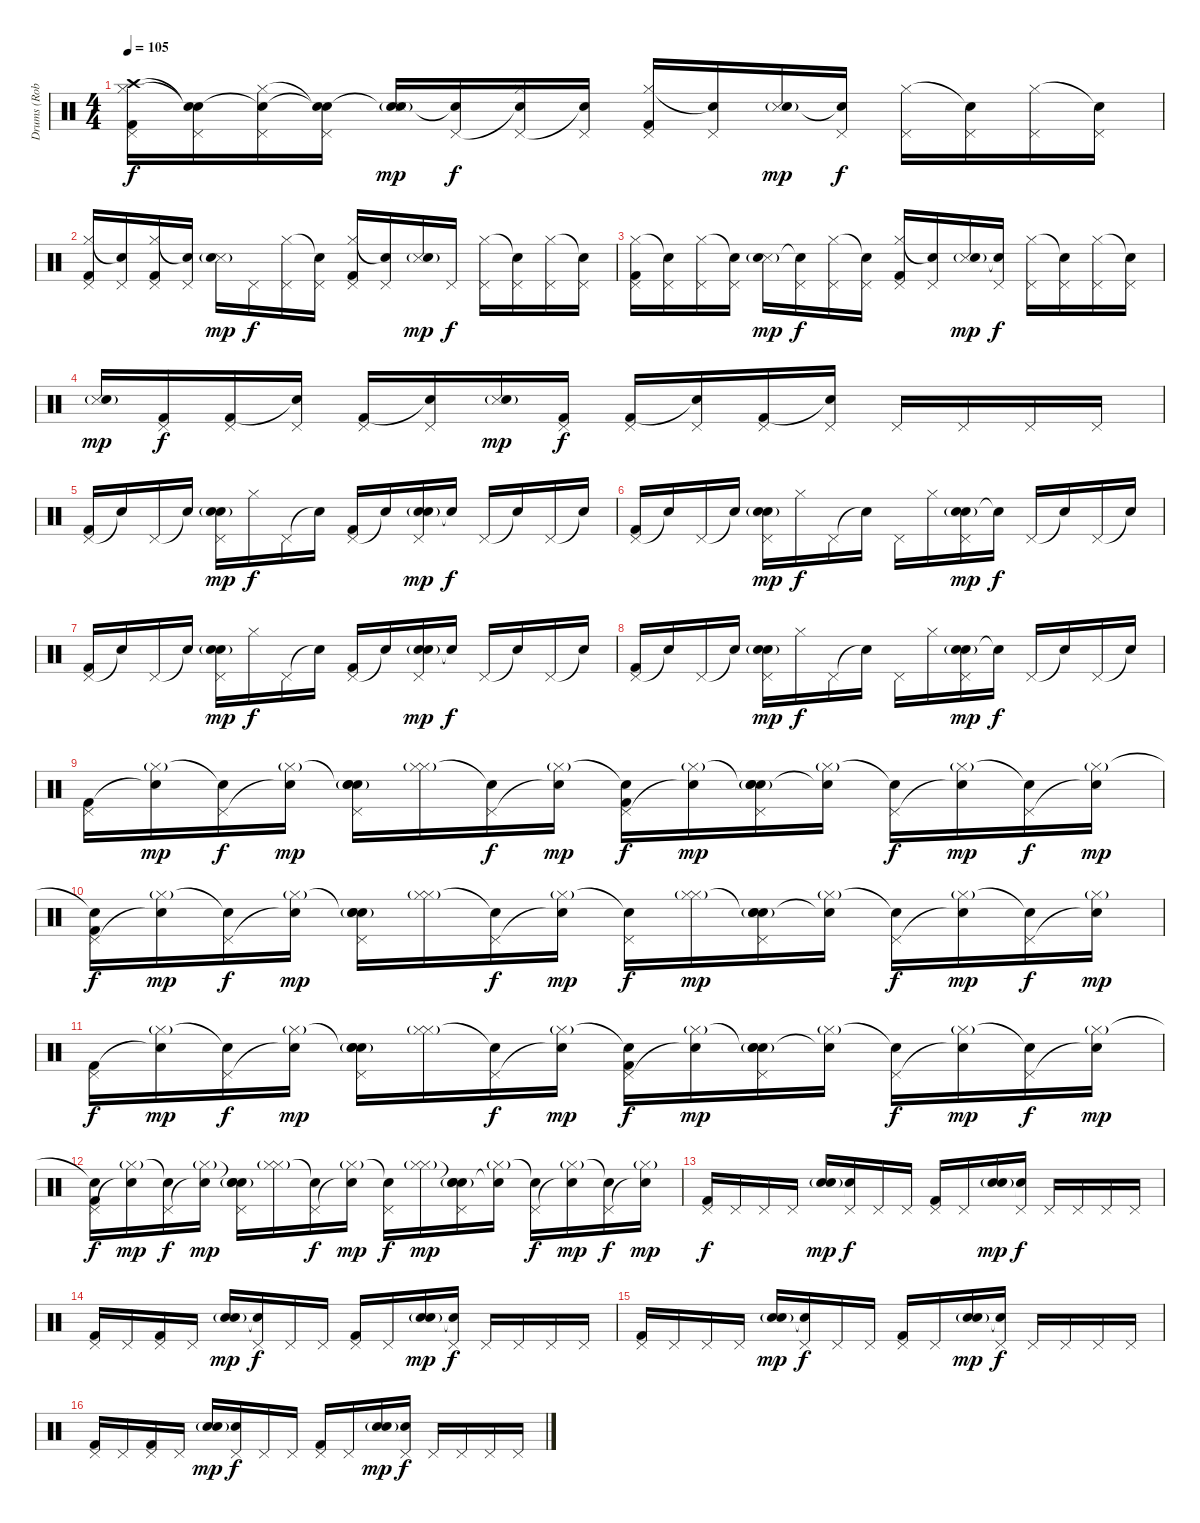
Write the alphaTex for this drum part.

\track ("Drums (Rob Bourdon)" "Drums (Rob") {instrument percussion}
\staff {score}
\articulation defaults
\ts (4 4)
\tempo 105
\clef neutral
\ks c
("Crash high (hit)" "Pedal Hi-Hat (hit)" "Hi-Hat (closed)" "Kick (hit) 2").16{dy f} ("Snare (hit)"{t} "Pedal Hi-Hat (hit)" "Snare (hit)"{t}).16 ("Snare (hit)"{t} "Pedal Hi-Hat (hit)" "Hi-Hat (closed)").16 ("Snare (hit)"{t} "Pedal Hi-Hat (hit)" "Snare (hit)"{t}).16 ("Snare (hit)"{t} "Snare (side stick) 3" "Electric Snare (hit)"{g}).16{dy mp} ("Pedal Hi-Hat (hit)" "Snare (hit)"{t}).16{dy f} ("Snare (hit)"{t} "Pedal Hi-Hat (hit)" "Hi-Hat (closed)").16 ("Pedal Hi-Hat (hit)" "Snare (hit)"{t}).16 ("Pedal Hi-Hat (hit)" "Hi-Hat (closed)" "Kick (hit) 2").16 ("Pedal Hi-Hat (hit)" "Snare (hit)"{t}).16 ("Snare (side stick) 3" "Electric Snare (hit)"{g}).16{dy mp} ("Pedal Hi-Hat (hit)" "Snare (hit)"{t}).16{dy f} ("Pedal Hi-Hat (hit)" "Hi-Hat (closed)").16 ("Pedal Hi-Hat (hit)" "Snare (hit)"{t}).16 ("Pedal Hi-Hat (hit)" "Hi-Hat (closed)").16 ("Pedal Hi-Hat (hit)" "Snare (hit)"{t}).16 |
("Pedal Hi-Hat (hit)" "Hi-Hat (closed)" "Kick (hit) 2").16 ("Pedal Hi-Hat (hit)" "Snare (hit)"{t}).16 ("Pedal Hi-Hat (hit)" "Hi-Hat (closed)" "Kick (hit) 2").16 ("Pedal Hi-Hat (hit)" "Snare (hit)"{t}).16 ("Snare (side stick) 3" "Electric Snare (hit)"{g}).16{dy mp} "Pedal Hi-Hat (hit)".16{dy f} ("Pedal Hi-Hat (hit)" "Hi-Hat (closed)").16 ("Pedal Hi-Hat (hit)" "Snare (hit)"{t}).16 ("Pedal Hi-Hat (hit)" "Hi-Hat (closed)" "Kick (hit) 2").16 ("Pedal Hi-Hat (hit)" "Snare (hit)"{t}).16 ("Snare (side stick) 3" "Electric Snare (hit)"{g}).16{dy mp} "Pedal Hi-Hat (hit)".16{dy f} ("Pedal Hi-Hat (hit)" "Hi-Hat (closed)").16 ("Pedal Hi-Hat (hit)" "Snare (hit)"{t}).16 ("Pedal Hi-Hat (hit)" "Hi-Hat (closed)").16 ("Pedal Hi-Hat (hit)" "Snare (hit)"{t}).16 |
("Pedal Hi-Hat (hit)" "Hi-Hat (closed)" "Kick (hit) 2").16 ("Pedal Hi-Hat (hit)" "Snare (hit)"{t}).16 ("Pedal Hi-Hat (hit)" "Hi-Hat (closed)").16 ("Pedal Hi-Hat (hit)" "Snare (hit)"{t}).16 ("Snare (side stick) 3" "Electric Snare (hit)"{g}).16{dy mp} ("Pedal Hi-Hat (hit)" "Snare (hit)"{t}).16{dy f} ("Pedal Hi-Hat (hit)" "Hi-Hat (closed)").16 ("Pedal Hi-Hat (hit)" "Snare (hit)"{t}).16 ("Pedal Hi-Hat (hit)" "Hi-Hat (closed)" "Kick (hit) 2").16 ("Pedal Hi-Hat (hit)" "Snare (hit)"{t}).16 ("Snare (side stick) 3" "Electric Snare (hit)"{g}).16{dy mp} ("Pedal Hi-Hat (hit)" "Snare (hit)"{t}).16{dy f} ("Pedal Hi-Hat (hit)" "Hi-Hat (closed)").16 ("Pedal Hi-Hat (hit)" "Snare (hit)"{t}).16 ("Pedal Hi-Hat (hit)" "Hi-Hat (closed)").16 ("Pedal Hi-Hat (hit)" "Snare (hit)"{t}).16 |
("Snare (side stick) 3" "Electric Snare (hit)"{g}).16{dy mp} ("Pedal Hi-Hat (hit)" "Kick (hit) 2").16{dy f} ("Pedal Hi-Hat (hit)" "Kick (hit) 2").16 ("Pedal Hi-Hat (hit)" "Snare (hit)"{t}).16 ("Pedal Hi-Hat (hit)" "Kick (hit) 2").16 ("Pedal Hi-Hat (hit)" "Snare (hit)"{t}).16 ("Snare (side stick) 3" "Electric Snare (hit)"{g}).16{dy mp} ("Pedal Hi-Hat (hit)" "Kick (hit) 2").16{dy f} ("Pedal Hi-Hat (hit)" "Kick (hit) 2").16 ("Pedal Hi-Hat (hit)" "Snare (hit)"{t}).16 ("Pedal Hi-Hat (hit)" "Kick (hit) 2").16 ("Pedal Hi-Hat (hit)" "Snare (hit)"{t}).16 "Pedal Hi-Hat (hit)".16 "Pedal Hi-Hat (hit)".16 "Pedal Hi-Hat (hit)".16 "Pedal Hi-Hat (hit)".16 |
("Pedal Hi-Hat (hit)" "Kick (hit) 2").16 "Snare (hit)"{t}.16 "Pedal Hi-Hat (hit)".16 "Snare (hit)"{t}.16 ("Electric Snare (hit)"{g} "Pedal Hi-Hat (hit)" "Hand Clap (hit)"{g}).16{dy mp} "Hi-Hat (closed)".16{dy f} "Pedal Hi-Hat (hit)".16 "Snare (hit)"{t}.16 ("Pedal Hi-Hat (hit)" "Kick (hit) 2").16 "Snare (hit)"{t}.16 ("Electric Snare (hit)"{g} "Pedal Hi-Hat (hit)" "Hand Clap (hit)"{g}).16{dy mp} "Snare (hit)"{t}.16{dy f} "Pedal Hi-Hat (hit)".16 "Snare (hit)"{t}.16 "Pedal Hi-Hat (hit)".16 "Snare (hit)"{t}.16 |
("Pedal Hi-Hat (hit)" "Kick (hit) 2").16 "Snare (hit)"{t}.16 "Pedal Hi-Hat (hit)".16 "Snare (hit)"{t}.16 ("Electric Snare (hit)"{g} "Pedal Hi-Hat (hit)" "Hand Clap (hit)"{g}).16{dy mp} "Hi-Hat (closed)".16{dy f} "Pedal Hi-Hat (hit)".16 "Snare (hit)"{t}.16 "Pedal Hi-Hat (hit)".16 "Hi-Hat (closed)".16 ("Electric Snare (hit)"{g} "Pedal Hi-Hat (hit)" "Hand Clap (hit)"{g}).16{dy mp} "Snare (hit)"{t}.16{dy f} "Pedal Hi-Hat (hit)".16 "Snare (hit)"{t}.16 "Pedal Hi-Hat (hit)".16 "Snare (hit)"{t}.16 |
("Pedal Hi-Hat (hit)" "Kick (hit) 2").16 "Snare (hit)"{t}.16 "Pedal Hi-Hat (hit)".16 "Snare (hit)"{t}.16 ("Electric Snare (hit)"{g} "Pedal Hi-Hat (hit)" "Hand Clap (hit)"{g}).16{dy mp} "Hi-Hat (closed)".16{dy f} "Pedal Hi-Hat (hit)".16 "Snare (hit)"{t}.16 ("Pedal Hi-Hat (hit)" "Kick (hit) 2").16 "Snare (hit)"{t}.16 ("Electric Snare (hit)"{g} "Pedal Hi-Hat (hit)" "Hand Clap (hit)"{g}).16{dy mp} "Snare (hit)"{t}.16{dy f} "Pedal Hi-Hat (hit)".16 "Snare (hit)"{t}.16 "Pedal Hi-Hat (hit)".16 "Snare (hit)"{t}.16 |
("Pedal Hi-Hat (hit)" "Kick (hit) 2").16 "Snare (hit)"{t}.16 "Pedal Hi-Hat (hit)".16 "Snare (hit)"{t}.16 ("Electric Snare (hit)"{g} "Pedal Hi-Hat (hit)" "Hand Clap (hit)"{g}).16{dy mp} "Hi-Hat (closed)".16{dy f} "Pedal Hi-Hat (hit)".16 "Snare (hit)"{t}.16 "Pedal Hi-Hat (hit)".16 "Hi-Hat (closed)".16 ("Electric Snare (hit)"{g} "Pedal Hi-Hat (hit)" "Hand Clap (hit)"{g}).16{dy mp} "Snare (hit)"{t}.16{dy f} "Pedal Hi-Hat (hit)".16 "Snare (hit)"{t}.16 "Pedal Hi-Hat (hit)".16 "Snare (hit)"{t}.16 |
("Pedal Hi-Hat (hit)" "Kick (hit) 2").16 ("Hi-Hat (closed)"{g} "Snare (hit)"{t}).16{dy mp} ("Snare (hit)"{t} "Pedal Hi-Hat (hit)").16{dy f} ("Hi-Hat (closed)"{g} "Snare (hit)"{t}).16{dy mp} ("Snare (hit)"{t} "Electric Snare (hit)"{g} "Pedal Hi-Hat (hit)" "Hand Clap (hit)"{g}).16 ("Hi-Hat (closed)"{g} "Hi-Hat (closed)").16 ("Snare (hit)"{t} "Pedal Hi-Hat (hit)").16{dy f} ("Hi-Hat (closed)"{g} "Snare (hit)"{t}).16{dy mp} ("Snare (hit)"{t} "Pedal Hi-Hat (hit)" "Kick (hit) 2").16{dy f} ("Hi-Hat (closed)"{g} "Snare (hit)"{t}).16{dy mp} ("Snare (hit)"{t} "Electric Snare (hit)"{g} "Pedal Hi-Hat (hit)" "Hand Clap (hit)"{g}).16 ("Hi-Hat (closed)"{g} "Snare (hit)"{t}).16 ("Snare (hit)"{t} "Pedal Hi-Hat (hit)").16{dy f} ("Hi-Hat (closed)"{g} "Snare (hit)"{t}).16{dy mp} ("Snare (hit)"{t} "Pedal Hi-Hat (hit)").16{dy f} ("Hi-Hat (closed)"{g} "Snare (hit)"{t}).16{dy mp} |
("Snare (hit)"{t} "Pedal Hi-Hat (hit)" "Kick (hit) 2").16{dy f} ("Hi-Hat (closed)"{g} "Snare (hit)"{t}).16{dy mp} ("Snare (hit)"{t} "Pedal Hi-Hat (hit)").16{dy f} ("Hi-Hat (closed)"{g} "Snare (hit)"{t}).16{dy mp} ("Snare (hit)"{t} "Electric Snare (hit)"{g} "Pedal Hi-Hat (hit)" "Hand Clap (hit)"{g}).16 ("Hi-Hat (closed)"{g} "Hi-Hat (closed)").16 ("Snare (hit)"{t} "Pedal Hi-Hat (hit)").16{dy f} ("Hi-Hat (closed)"{g} "Snare (hit)"{t}).16{dy mp} ("Snare (hit)"{t} "Pedal Hi-Hat (hit)").16{dy f} ("Hi-Hat (closed)"{g} "Hi-Hat (closed)").16{dy mp} ("Snare (hit)"{t} "Electric Snare (hit)"{g} "Pedal Hi-Hat (hit)" "Hand Clap (hit)"{g}).16 ("Hi-Hat (closed)"{g} "Snare (hit)"{t}).16 ("Snare (hit)"{t} "Pedal Hi-Hat (hit)").16{dy f} ("Hi-Hat (closed)"{g} "Snare (hit)"{t}).16{dy mp} ("Snare (hit)"{t} "Pedal Hi-Hat (hit)").16{dy f} ("Hi-Hat (closed)"{g} "Snare (hit)"{t}).16{dy mp} |
("Pedal Hi-Hat (hit)" "Kick (hit) 2").16{dy f} ("Hi-Hat (closed)"{g} "Snare (hit)"{t}).16{dy mp} ("Snare (hit)"{t} "Pedal Hi-Hat (hit)").16{dy f} ("Hi-Hat (closed)"{g} "Snare (hit)"{t}).16{dy mp} ("Snare (hit)"{t} "Electric Snare (hit)"{g} "Pedal Hi-Hat (hit)" "Hand Clap (hit)"{g}).16 ("Hi-Hat (closed)"{g} "Hi-Hat (closed)").16 ("Snare (hit)"{t} "Pedal Hi-Hat (hit)").16{dy f} ("Hi-Hat (closed)"{g} "Snare (hit)"{t}).16{dy mp} ("Snare (hit)"{t} "Pedal Hi-Hat (hit)" "Kick (hit) 2").16{dy f} ("Hi-Hat (closed)"{g} "Snare (hit)"{t}).16{dy mp} ("Snare (hit)"{t} "Electric Snare (hit)"{g} "Pedal Hi-Hat (hit)" "Hand Clap (hit)"{g}).16 ("Hi-Hat (closed)"{g} "Snare (hit)"{t}).16 ("Snare (hit)"{t} "Pedal Hi-Hat (hit)").16{dy f} ("Hi-Hat (closed)"{g} "Snare (hit)"{t}).16{dy mp} ("Snare (hit)"{t} "Pedal Hi-Hat (hit)").16{dy f} ("Hi-Hat (closed)"{g} "Snare (hit)"{t}).16{dy mp} |
("Snare (hit)"{t} "Pedal Hi-Hat (hit)" "Kick (hit) 2").16{dy f} ("Hi-Hat (closed)"{g} "Snare (hit)"{t}).16{dy mp} ("Snare (hit)"{t} "Pedal Hi-Hat (hit)").16{dy f} ("Hi-Hat (closed)"{g} "Snare (hit)"{t}).16{dy mp} ("Snare (hit)"{t} "Electric Snare (hit)"{g} "Pedal Hi-Hat (hit)" "Hand Clap (hit)"{g}).16 ("Hi-Hat (closed)"{g} "Hi-Hat (closed)").16 ("Snare (hit)"{t} "Pedal Hi-Hat (hit)").16{dy f} ("Hi-Hat (closed)"{g} "Snare (hit)"{t}).16{dy mp} ("Snare (hit)"{t} "Pedal Hi-Hat (hit)").16{dy f} ("Hi-Hat (closed)"{g} "Hi-Hat (closed)").16{dy mp} ("Snare (hit)"{t} "Electric Snare (hit)"{g} "Pedal Hi-Hat (hit)" "Hand Clap (hit)"{g}).16 ("Hi-Hat (closed)"{g} "Snare (hit)"{t}).16 ("Snare (hit)"{t} "Pedal Hi-Hat (hit)").16{dy f} ("Hi-Hat (closed)"{g} "Snare (hit)"{t}).16{dy mp} ("Snare (hit)"{t} "Pedal Hi-Hat (hit)").16{dy f} ("Hi-Hat (closed)"{g} "Snare (hit)"{t}).16{dy mp} |
("Pedal Hi-Hat (hit)" "Kick (hit) 2").16{dy f} "Pedal Hi-Hat (hit)".16 "Pedal Hi-Hat (hit)".16 "Pedal Hi-Hat (hit)".16 ("Hand Clap (hit)"{g} "Electric Snare (hit)"{g}).16{dy mp} ("Pedal Hi-Hat (hit)" "Snare (hit)"{t}).16{dy f} "Pedal Hi-Hat (hit)".16 "Pedal Hi-Hat (hit)".16 ("Pedal Hi-Hat (hit)" "Kick (hit) 2").16 "Pedal Hi-Hat (hit)".16 ("Hand Clap (hit)"{g} "Electric Snare (hit)"{g}).16{dy mp} ("Pedal Hi-Hat (hit)" "Snare (hit)"{t}).16{dy f} "Pedal Hi-Hat (hit)".16 "Pedal Hi-Hat (hit)".16 "Pedal Hi-Hat (hit)".16 "Pedal Hi-Hat (hit)".16 |
("Pedal Hi-Hat (hit)" "Kick (hit) 2").16 "Pedal Hi-Hat (hit)".16 ("Pedal Hi-Hat (hit)" "Kick (hit) 2").16 "Pedal Hi-Hat (hit)".16 ("Hand Clap (hit)"{g} "Electric Snare (hit)"{g}).16{dy mp} ("Pedal Hi-Hat (hit)" "Snare (hit)"{t}).16{dy f} "Pedal Hi-Hat (hit)".16 "Pedal Hi-Hat (hit)".16 ("Pedal Hi-Hat (hit)" "Kick (hit) 2").16 "Pedal Hi-Hat (hit)".16 ("Hand Clap (hit)"{g} "Electric Snare (hit)"{g}).16{dy mp} ("Pedal Hi-Hat (hit)" "Snare (hit)"{t}).16{dy f} "Pedal Hi-Hat (hit)".16 "Pedal Hi-Hat (hit)".16 "Pedal Hi-Hat (hit)".16 "Pedal Hi-Hat (hit)".16 |
("Pedal Hi-Hat (hit)" "Kick (hit) 2").16 "Pedal Hi-Hat (hit)".16 "Pedal Hi-Hat (hit)".16 "Pedal Hi-Hat (hit)".16 ("Hand Clap (hit)"{g} "Electric Snare (hit)"{g}).16{dy mp} ("Pedal Hi-Hat (hit)" "Snare (hit)"{t}).16{dy f} "Pedal Hi-Hat (hit)".16 "Pedal Hi-Hat (hit)".16 ("Pedal Hi-Hat (hit)" "Kick (hit) 2").16 "Pedal Hi-Hat (hit)".16 ("Hand Clap (hit)"{g} "Electric Snare (hit)"{g}).16{dy mp} ("Pedal Hi-Hat (hit)" "Snare (hit)"{t}).16{dy f} "Pedal Hi-Hat (hit)".16 "Pedal Hi-Hat (hit)".16 "Pedal Hi-Hat (hit)".16 "Pedal Hi-Hat (hit)".16 |
("Pedal Hi-Hat (hit)" "Kick (hit) 2").16 "Pedal Hi-Hat (hit)".16 ("Pedal Hi-Hat (hit)" "Kick (hit) 2").16 "Pedal Hi-Hat (hit)".16 ("Hand Clap (hit)"{g} "Electric Snare (hit)"{g}).16{dy mp} ("Pedal Hi-Hat (hit)" "Snare (hit)"{t}).16{dy f} "Pedal Hi-Hat (hit)".16 "Pedal Hi-Hat (hit)".16 ("Pedal Hi-Hat (hit)" "Kick (hit) 2").16 "Pedal Hi-Hat (hit)".16 ("Hand Clap (hit)"{g} "Electric Snare (hit)"{g}).16{dy mp} ("Pedal Hi-Hat (hit)" "Snare (hit)"{t}).16{dy f} "Pedal Hi-Hat (hit)".16 "Pedal Hi-Hat (hit)".16 "Pedal Hi-Hat (hit)".16 "Pedal Hi-Hat (hit)".16
